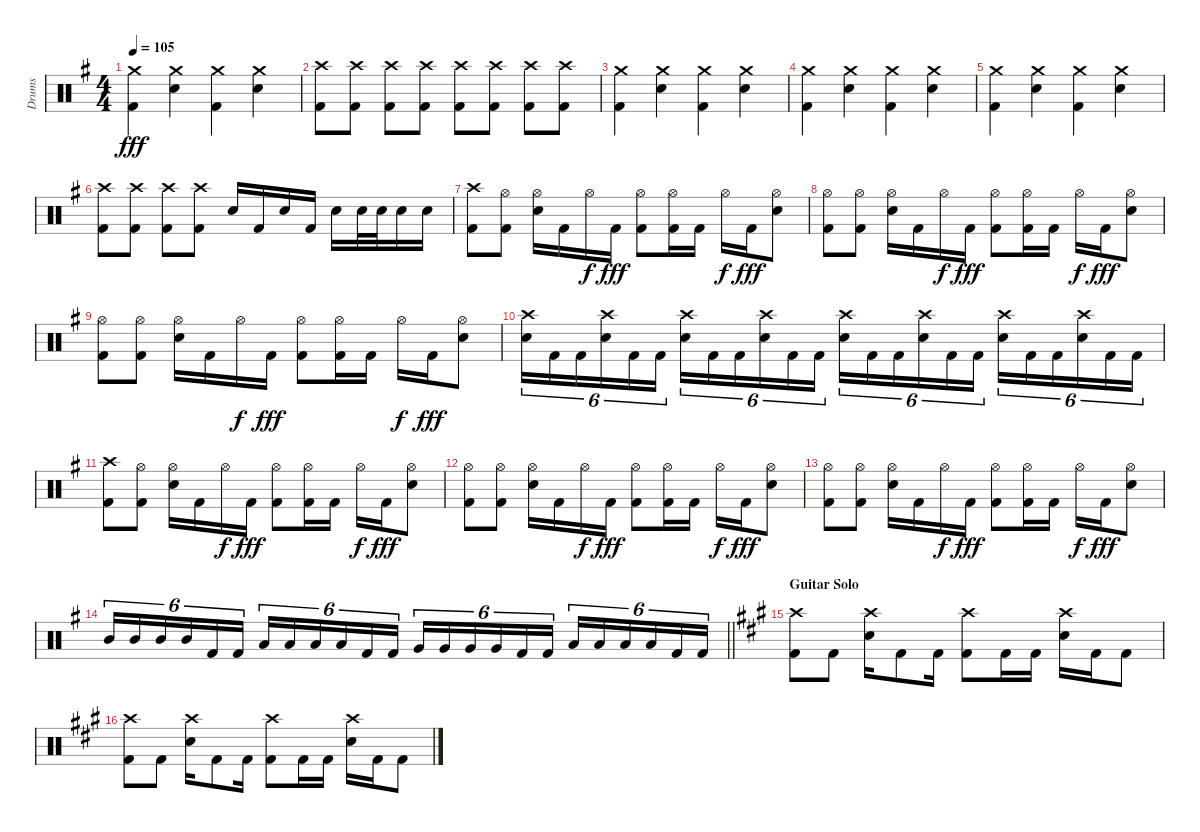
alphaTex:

\track ("Drums" "Drums") {instrument percussion}
\staff {score}
\articulation defaults
\ts (4 4)
\tempo 105
\clef neutral
\ks eminor
("Crash medium (hit)" "Kick (hit) 2").4{dy fff} ("Crash medium (hit)" "Snare (hit) 2").4 ("Crash medium (hit)" "Kick (hit) 2").4 ("Crash medium (hit)" "Snare (hit) 2").4 |
("Crash high (hit)" "Kick (hit) 2").8 ("Crash high (hit)" "Kick (hit) 2").8 ("Crash high (hit)" "Kick (hit) 2").8 ("Crash high (hit)" "Kick (hit) 2").8 ("Crash high (hit)" "Kick (hit) 2").8 ("Crash high (hit)" "Kick (hit) 2").8 ("Crash high (hit)" "Kick (hit) 2").8 ("Crash high (hit)" "Kick (hit) 2").8 |
("Crash medium (hit)" "Kick (hit) 2").4 ("Crash medium (hit)" "Snare (hit) 2").4 ("Crash medium (hit)" "Kick (hit) 2").4 ("Crash medium (hit)" "Snare (hit) 2").4 |
("Crash medium (hit)" "Kick (hit) 2").4 ("Crash medium (hit)" "Snare (hit) 2").4 ("Crash medium (hit)" "Kick (hit) 2").4 ("Crash medium (hit)" "Snare (hit) 2").4 |
("Crash medium (hit)" "Kick (hit) 2").4 ("Crash medium (hit)" "Snare (hit) 2").4 ("Crash medium (hit)" "Kick (hit) 2").4 ("Crash medium (hit)" "Snare (hit) 2").4 |
("Crash high (hit)" "Kick (hit) 2").8 ("Crash high (hit)" "Kick (hit) 2").8 ("Crash high (hit)" "Kick (hit) 2").8 ("Crash high (hit)" "Kick (hit) 2").8 "Snare (hit) 2".16 "Kick (hit) 2".16 "Snare (hit) 2".16 "Kick (hit) 2".16 "Snare (hit) 2".16 "Snare (hit) 2".32 "Snare (hit) 2".32 "Snare (hit) 2".16 "Snare (hit) 2".16 |
("Crash high (hit)" "Kick (hit) 2").8 ("Hi-Hat (open)" "Kick (hit) 2").8 ("Hi-Hat (open)" "Snare (hit) 2").16 "Kick (hit) 2".16 "Hi-Hat (open)".16{dy f} "Kick (hit) 2".16{dy fff} ("Hi-Hat (open)" "Kick (hit) 2").8 ("Hi-Hat (open)" "Kick (hit) 2").16 "Kick (hit) 2".16 "Hi-Hat (open)".16{dy f} "Kick (hit) 2".16{dy fff} ("Hi-Hat (open)" "Snare (hit) 2").8 |
("Hi-Hat (open)" "Kick (hit) 2").8 ("Hi-Hat (open)" "Kick (hit) 2").8 ("Hi-Hat (open)" "Snare (hit) 2").16 "Kick (hit) 2".16 "Hi-Hat (open)".16{dy f} "Kick (hit) 2".16{dy fff} ("Hi-Hat (open)" "Kick (hit) 2").8 ("Hi-Hat (open)" "Kick (hit) 2").16 "Kick (hit) 2".16 "Hi-Hat (open)".16{dy f} "Kick (hit) 2".16{dy fff} ("Hi-Hat (open)" "Snare (hit) 2").8 |
("Hi-Hat (open)" "Kick (hit) 2").8 ("Hi-Hat (open)" "Kick (hit) 2").8 ("Hi-Hat (open)" "Snare (hit) 2").16 "Kick (hit) 2".16 "Hi-Hat (open)".16{dy f} "Kick (hit) 2".16{dy fff} ("Hi-Hat (open)" "Kick (hit) 2").8 ("Hi-Hat (open)" "Kick (hit) 2").16 "Kick (hit) 2".16 "Hi-Hat (open)".16{dy f} "Kick (hit) 2".16{dy fff} ("Hi-Hat (open)" "Snare (hit) 2").8 |
("Crash high (hit)" "Snare (hit) 2").16{tu (6 4)} "Kick (hit) 2".16{tu (6 4)} "Kick (hit) 2".16{tu (6 4)} ("Crash high (hit)" "Snare (hit) 2").16{tu (6 4)} "Kick (hit) 2".16{tu (6 4)} "Kick (hit) 2".16{tu (6 4)} ("Crash high (hit)" "Snare (hit) 2").16{tu (6 4)} "Kick (hit) 2".16{tu (6 4)} "Kick (hit) 2".16{tu (6 4)} ("Crash high (hit)" "Snare (hit) 2").16{tu (6 4)} "Kick (hit) 2".16{tu (6 4)} "Kick (hit) 2".16{tu (6 4)} ("Crash high (hit)" "Snare (hit) 2").16{tu (6 4)} "Kick (hit) 2".16{tu (6 4)} "Kick (hit) 2".16{tu (6 4)} ("Crash high (hit)" "Snare (hit) 2").16{tu (6 4)} "Kick (hit) 2".16{tu (6 4)} "Kick (hit) 2".16{tu (6 4)} ("Crash high (hit)" "Snare (hit) 2").16{tu (6 4)} "Kick (hit) 2".16{tu (6 4)} "Kick (hit) 2".16{tu (6 4)} ("Crash high (hit)" "Snare (hit) 2").16{tu (6 4)} "Kick (hit) 2".16{tu (6 4)} "Kick (hit) 2".16{tu (6 4)} |
("Crash high (hit)" "Kick (hit) 2").8 ("Hi-Hat (open)" "Kick (hit) 2").8 ("Hi-Hat (open)" "Snare (hit) 2").16 "Kick (hit) 2".16 "Hi-Hat (open)".16{dy f} "Kick (hit) 2".16{dy fff} ("Hi-Hat (open)" "Kick (hit) 2").8 ("Hi-Hat (open)" "Kick (hit) 2").16 "Kick (hit) 2".16 "Hi-Hat (open)".16{dy f} "Kick (hit) 2".16{dy fff} ("Hi-Hat (open)" "Snare (hit) 2").8 |
("Hi-Hat (open)" "Kick (hit) 2").8 ("Hi-Hat (open)" "Kick (hit) 2").8 ("Hi-Hat (open)" "Snare (hit) 2").16 "Kick (hit) 2".16 "Hi-Hat (open)".16{dy f} "Kick (hit) 2".16{dy fff} ("Hi-Hat (open)" "Kick (hit) 2").8 ("Hi-Hat (open)" "Kick (hit) 2").16 "Kick (hit) 2".16 "Hi-Hat (open)".16{dy f} "Kick (hit) 2".16{dy fff} ("Hi-Hat (open)" "Snare (hit) 2").8 |
("Hi-Hat (open)" "Kick (hit) 2").8 ("Hi-Hat (open)" "Kick (hit) 2").8 ("Hi-Hat (open)" "Snare (hit) 2").16 "Kick (hit) 2".16 "Hi-Hat (open)".16{dy f} "Kick (hit) 2".16{dy fff} ("Hi-Hat (open)" "Kick (hit) 2").8 ("Hi-Hat (open)" "Kick (hit) 2").16 "Kick (hit) 2".16 "Hi-Hat (open)".16{dy f} "Kick (hit) 2".16{dy fff} ("Hi-Hat (open)" "Snare (hit) 2").8 |
\barLineRight lightlight "Mid Tom (hit)".16{tu (6 4)} "Mid Tom (hit)".16{tu (6 4)} "Mid Tom (hit)".16{tu (6 4)} "Mid Tom (hit)".16{tu (6 4)} "Kick (hit) 2".16{tu (6 4)} "Kick (hit) 2".16{tu (6 4)} "Low Tom (hit)".16{tu (6 4)} "Low Tom (hit)".16{tu (6 4)} "Low Tom (hit)".16{tu (6 4)} "Low Tom (hit)".16{tu (6 4)} "Kick (hit) 2".16{tu (6 4)} "Kick (hit) 2".16{tu (6 4)} "Very Low Tom (hit)".16{tu (6 4)} "Very Low Tom (hit)".16{tu (6 4)} "Very Low Tom (hit)".16{tu (6 4)} "Very Low Tom (hit)".16{tu (6 4)} "Kick (hit) 2".16{tu (6 4)} "Kick (hit) 2".16{tu (6 4)} "Low Floor Tom (hit)".16{tu (6 4)} "Low Floor Tom (hit)".16{tu (6 4)} "Low Floor Tom (hit)".16{tu (6 4)} "Low Floor Tom (hit)".16{tu (6 4)} "Kick (hit) 2".16{tu (6 4)} "Kick (hit) 2".16{tu (6 4)}
|
\section ("" "Guitar Solo")
\ks f#minor
("Crash high (hit)" "Kick (hit) 2").8 "Kick (hit) 2".8 ("Crash high (hit)" "Snare (hit) 2").16 "Kick (hit) 2".8 "Kick (hit) 2".16 ("Crash high (hit)" "Kick (hit) 2").8 "Kick (hit) 2".16 "Kick (hit) 2".16 ("Crash high (hit)" "Snare (hit) 2").16 "Kick (hit) 2".16 "Kick (hit) 2".8 |
("Crash high (hit)" "Kick (hit) 2").8 "Kick (hit) 2".8 ("Crash high (hit)" "Snare (hit) 2").16 "Kick (hit) 2".8 "Kick (hit) 2".16 ("Crash high (hit)" "Kick (hit) 2").8 "Kick (hit) 2".16 "Kick (hit) 2".16 ("Crash high (hit)" "Snare (hit) 2").16 "Kick (hit) 2".16 "Kick (hit) 2".8
